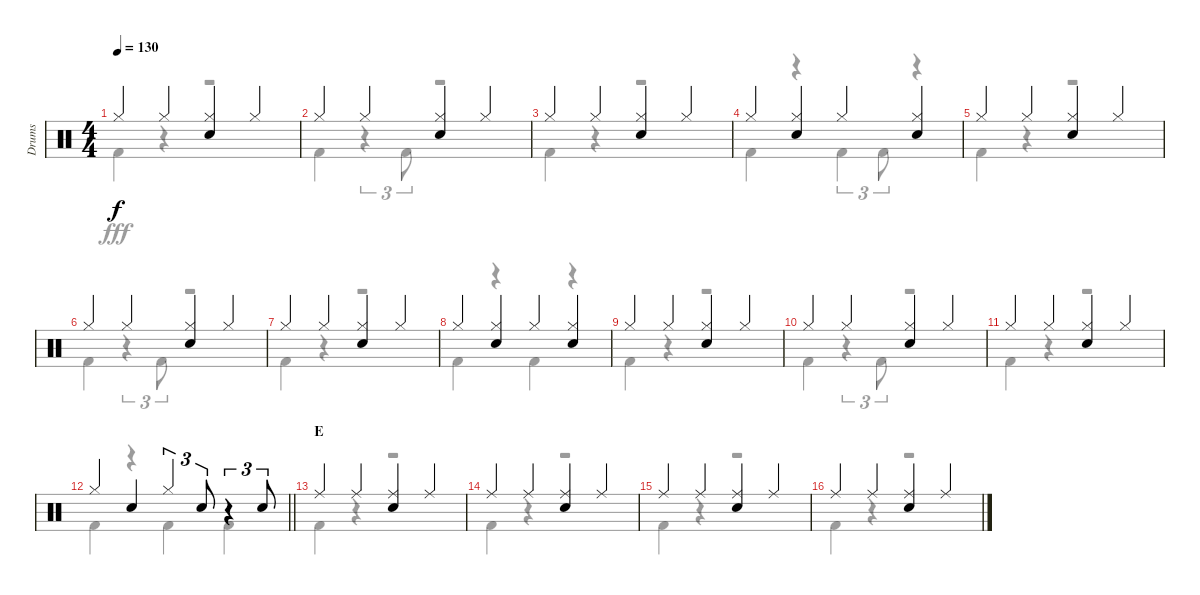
\track ("Drums" "Drums") {instrument percussion}
\staff {score}
\articulation defaults
\voice
\ts (4 4)
\tempo 130
\clef neutral
\ks c "Hi-Hat (closed)".4{dy f} "Hi-Hat (closed)".4
("Hi-Hat (closed)" "Snare (hit) 2").4 "Hi-Hat (closed)".4 |
"Hi-Hat (closed)".4 "Hi-Hat (closed)".4 ("Hi-Hat (closed)" "Snare (hit) 2").4 "Hi-Hat (closed)".4 |
"Hi-Hat (closed)".4 "Hi-Hat (closed)".4 ("Hi-Hat (closed)" "Snare (hit) 2").4 "Hi-Hat (closed)".4 |
"Hi-Hat (closed)".4 ("Hi-Hat (closed)" "Snare (hit) 2").4 "Hi-Hat (closed)".4 ("Hi-Hat (closed)" "Snare (hit) 2").4 |
"Hi-Hat (closed)".4 "Hi-Hat (closed)".4 ("Hi-Hat (closed)" "Snare (hit) 2").4 "Hi-Hat (closed)".4 |
"Hi-Hat (closed)".4 "Hi-Hat (closed)".4 ("Hi-Hat (closed)" "Snare (hit) 2").4 "Hi-Hat (closed)".4 |
"Hi-Hat (closed)".4 "Hi-Hat (closed)".4 ("Hi-Hat (closed)" "Snare (hit) 2").4 "Hi-Hat (closed)".4 |
"Hi-Hat (closed)".4 ("Hi-Hat (closed)" "Snare (hit) 2").4 "Hi-Hat (closed)".4 ("Hi-Hat (closed)" "Snare (hit) 2").4 |
"Hi-Hat (closed)".4 "Hi-Hat (closed)".4 ("Hi-Hat (closed)" "Snare (hit) 2").4 "Hi-Hat (closed)".4 |
"Hi-Hat (closed)".4 "Hi-Hat (closed)".4 ("Hi-Hat (closed)" "Snare (hit) 2").4 "Hi-Hat (closed)".4 |
"Hi-Hat (closed)".4 "Hi-Hat (closed)".4 ("Hi-Hat (closed)" "Snare (hit) 2").4 "Hi-Hat (closed)".4 |
\barLineRight lightlight "Hi-Hat (closed)".4 "Snare (hit) 2".4 "Hi-Hat (closed)".4{tu (3 2)} "Snare (hit) 2".8{tu (3 2)}
r.4{tu (3 2)} "Snare (hit) 2".8{tu (3 2)} |
\section ("" "E")
"Ride (middle)".4 "Ride (middle)".4 ("Ride (middle)" "Snare (hit) 2").4 "Ride (middle)".4 |
"Ride (middle)".4 "Ride (middle)".4 ("Ride (middle)" "Snare (hit) 2").4 "Ride (middle)".4 |
"Ride (middle)".4 "Ride (middle)".4 ("Ride (middle)" "Snare (hit) 2").4 "Ride (middle)".4 |
"Ride (middle)".4 "Ride (middle)".4 ("Ride (middle)" "Snare (hit) 2").4 "Ride (middle)".4
\voice
\clef neutral
\ottava regular
\simile none
\ks c "Kick (hit) 2".4{dy fff}
r.4 r.2 |
"Kick (hit) 2".4 r.4{tu (3 2)} "Kick (hit) 2".8{tu (3 2)} r.2 |
"Kick (hit) 2".4 r.4 r.2 |
"Kick (hit) 2".4 r.4 "Kick (hit) 2".4{tu (3 2)} "Kick (hit) 2".8{tu (3 2)} r.4 |
"Kick (hit) 2".4 r.4 r.2 |
"Kick (hit) 2".4 r.4{tu (3 2)} "Kick (hit) 2".8{tu (3 2)} r.2 |
"Kick (hit) 2".4 r.4 r.2 |
"Kick (hit) 2".4 r.4 "Kick (hit) 2".4 r.4 |
"Kick (hit) 2".4 r.4 r.2 |
"Kick (hit) 2".4 r.4{tu (3 2)} "Kick (hit) 2".8{tu (3 2)} r.2 |
"Kick (hit) 2".4 r.4 r.2 |
\barLineRight lightlight "Kick (hit) 2".4
r.4 "Kick (hit) 2".4 "Kick (hit) 2".4 |
"Kick (hit) 2".4 r.4 r.2 |
"Kick (hit) 2".4 r.4 r.2 |
"Kick (hit) 2".4 r.4 r.2 |
"Kick (hit) 2".4 r.4 r.2
